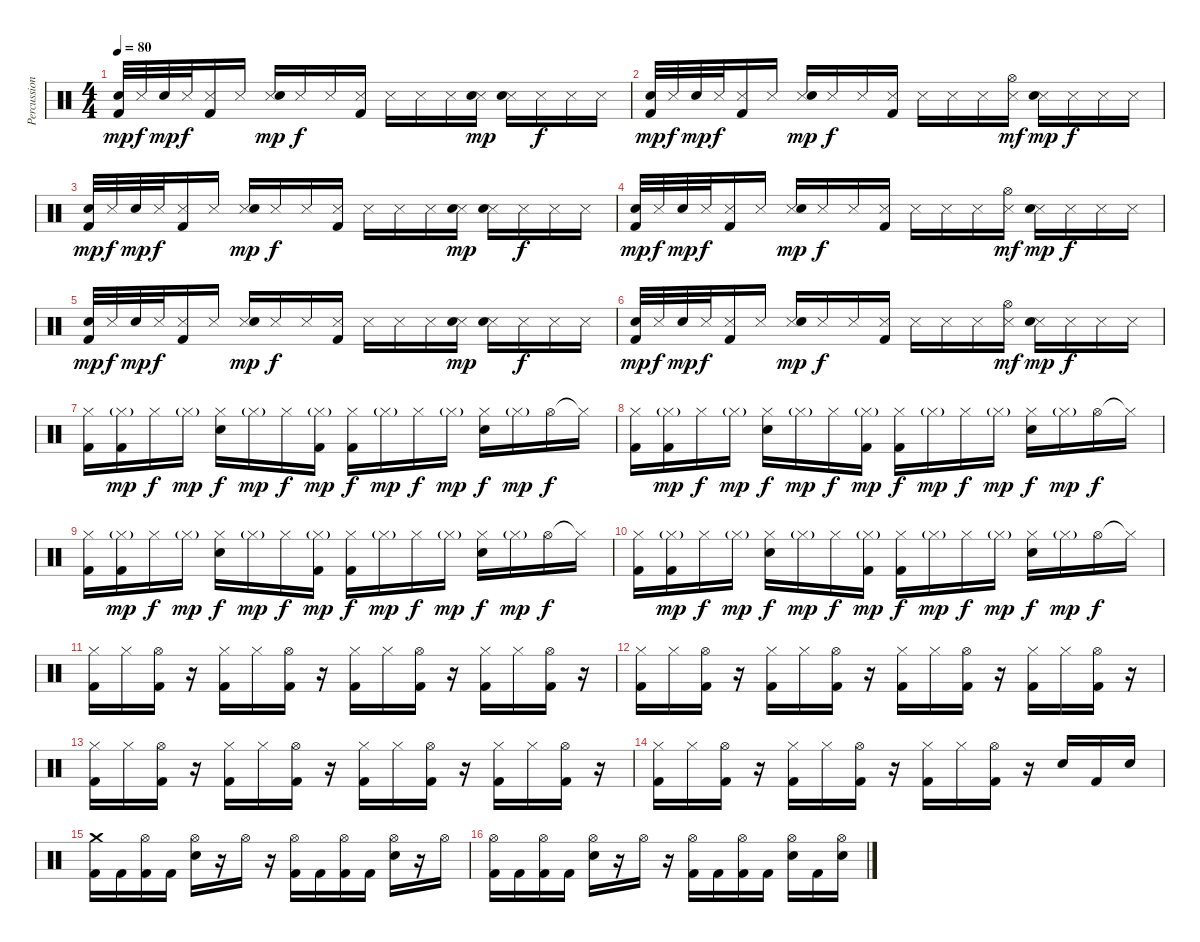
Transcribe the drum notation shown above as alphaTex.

\track ("Percussion" "Percussion") {instrument percussion}
\staff {score}
\articulation defaults
\ts (4 4)
\tempo 80
\clef neutral
\ks c
("Electric Snare (hit)" "Kick (hit) 2").32{dy mp} "Snare (side stick) 3".32{dy f} "Electric Snare (hit)".32{dy mp} "Snare (side stick) 3".32{dy f} ("Snare (side stick) 3" "Kick (hit) 2").16 "Snare (side stick) 3".16 ("Snare (side stick) 3" "Electric Snare (hit)").16{dy mp} "Snare (side stick) 3".16{dy f} "Snare (side stick) 3".16 ("Snare (side stick) 3" "Kick (hit) 2").16 "Snare (side stick) 3".16 "Snare (side stick) 3".16 "Snare (side stick) 3".16 ("Snare (side stick) 3" "Electric Snare (hit)").16{dy mp} ("Snare (side stick) 3" "Electric Snare (hit)").16 "Snare (side stick) 3".16{dy f} "Snare (side stick) 3".16 "Snare (side stick) 3".16 |
("Electric Snare (hit)" "Kick (hit) 2").32{dy mp} "Snare (side stick) 3".32{dy f} "Electric Snare (hit)".32{dy mp} "Snare (side stick) 3".32{dy f} ("Snare (side stick) 3" "Kick (hit) 2").16 "Snare (side stick) 3".16 ("Snare (side stick) 3" "Electric Snare (hit)").16{dy mp} "Snare (side stick) 3".16{dy f} "Snare (side stick) 3".16 ("Snare (side stick) 3" "Kick (hit) 2").16 "Snare (side stick) 3".16 "Snare (side stick) 3".16 "Snare (side stick) 3".16 ("Snare (side stick) 3" "Hi-Hat (open)").16{dy mf} ("Snare (side stick) 3" "Electric Snare (hit)").16{dy mp} "Snare (side stick) 3".16{dy f} "Snare (side stick) 3".16 "Snare (side stick) 3".16 |
("Electric Snare (hit)" "Kick (hit) 2").32{dy mp} "Snare (side stick) 3".32{dy f} "Electric Snare (hit)".32{dy mp} "Snare (side stick) 3".32{dy f} ("Snare (side stick) 3" "Kick (hit) 2").16 "Snare (side stick) 3".16 ("Snare (side stick) 3" "Electric Snare (hit)").16{dy mp} "Snare (side stick) 3".16{dy f} "Snare (side stick) 3".16 ("Snare (side stick) 3" "Kick (hit) 2").16 "Snare (side stick) 3".16 "Snare (side stick) 3".16 "Snare (side stick) 3".16 ("Snare (side stick) 3" "Electric Snare (hit)").16{dy mp} ("Snare (side stick) 3" "Electric Snare (hit)").16 "Snare (side stick) 3".16{dy f} "Snare (side stick) 3".16 "Snare (side stick) 3".16 |
("Electric Snare (hit)" "Kick (hit) 2").32{dy mp} "Snare (side stick) 3".32{dy f} "Electric Snare (hit)".32{dy mp} "Snare (side stick) 3".32{dy f} ("Snare (side stick) 3" "Kick (hit) 2").16 "Snare (side stick) 3".16 ("Snare (side stick) 3" "Electric Snare (hit)").16{dy mp} "Snare (side stick) 3".16{dy f} "Snare (side stick) 3".16 ("Snare (side stick) 3" "Kick (hit) 2").16 "Snare (side stick) 3".16 "Snare (side stick) 3".16 "Snare (side stick) 3".16 ("Snare (side stick) 3" "Hi-Hat (open)").16{dy mf} ("Snare (side stick) 3" "Electric Snare (hit)").16{dy mp} "Snare (side stick) 3".16{dy f} "Snare (side stick) 3".16 "Snare (side stick) 3".16 |
("Electric Snare (hit)" "Kick (hit) 2").32{dy mp} "Snare (side stick) 3".32{dy f} "Electric Snare (hit)".32{dy mp} "Snare (side stick) 3".32{dy f} ("Snare (side stick) 3" "Kick (hit) 2").16 "Snare (side stick) 3".16 ("Snare (side stick) 3" "Electric Snare (hit)").16{dy mp} "Snare (side stick) 3".16{dy f} "Snare (side stick) 3".16 ("Snare (side stick) 3" "Kick (hit) 2").16 "Snare (side stick) 3".16 "Snare (side stick) 3".16 "Snare (side stick) 3".16 ("Snare (side stick) 3" "Electric Snare (hit)").16{dy mp} ("Snare (side stick) 3" "Electric Snare (hit)").16 "Snare (side stick) 3".16{dy f} "Snare (side stick) 3".16 "Snare (side stick) 3".16 |
("Electric Snare (hit)" "Kick (hit) 2").32{dy mp} "Snare (side stick) 3".32{dy f} "Electric Snare (hit)".32{dy mp} "Snare (side stick) 3".32{dy f} ("Snare (side stick) 3" "Kick (hit) 2").16 "Snare (side stick) 3".16 ("Snare (side stick) 3" "Electric Snare (hit)").16{dy mp} "Snare (side stick) 3".16{dy f} "Snare (side stick) 3".16 ("Snare (side stick) 3" "Kick (hit) 2").16 "Snare (side stick) 3".16 "Snare (side stick) 3".16 "Snare (side stick) 3".16 ("Snare (side stick) 3" "Hi-Hat (open)").16{dy mf} ("Snare (side stick) 3" "Electric Snare (hit)").16{dy mp} "Snare (side stick) 3".16{dy f} "Snare (side stick) 3".16 "Snare (side stick) 3".16 |
("Hi-Hat (closed)" "Kick (hit) 2").16 ("Hi-Hat (closed)"{g} "Kick (hit) 2").16{dy mp} "Hi-Hat (closed)".16{dy f} "Hi-Hat (closed)"{g}.16{dy mp} ("Hi-Hat (closed)" "Electric Snare (hit)").16{dy f} "Hi-Hat (closed)"{g}.16{dy mp} "Hi-Hat (closed)".16{dy f} ("Hi-Hat (closed)"{g} "Kick (hit) 2").16{dy mp} ("Hi-Hat (closed)" "Kick (hit) 2").16{dy f} "Hi-Hat (closed)"{g}.16{dy mp} "Hi-Hat (closed)".16{dy f} "Hi-Hat (closed)"{g}.16{dy mp} ("Hi-Hat (closed)" "Electric Snare (hit)").16{dy f} "Hi-Hat (closed)"{g}.16{dy mp} "Hi-Hat (open)".16{dy f} "Hi-Hat (closed)"{t}.16 |
("Hi-Hat (closed)" "Kick (hit) 2").16 ("Hi-Hat (closed)"{g} "Kick (hit) 2").16{dy mp} "Hi-Hat (closed)".16{dy f} "Hi-Hat (closed)"{g}.16{dy mp} ("Hi-Hat (closed)" "Electric Snare (hit)").16{dy f} "Hi-Hat (closed)"{g}.16{dy mp} "Hi-Hat (closed)".16{dy f} ("Hi-Hat (closed)"{g} "Kick (hit) 2").16{dy mp} ("Hi-Hat (closed)" "Kick (hit) 2").16{dy f} "Hi-Hat (closed)"{g}.16{dy mp} "Hi-Hat (closed)".16{dy f} "Hi-Hat (closed)"{g}.16{dy mp} ("Hi-Hat (closed)" "Electric Snare (hit)").16{dy f} "Hi-Hat (closed)"{g}.16{dy mp} "Hi-Hat (open)".16{dy f} "Hi-Hat (closed)"{t}.16 |
("Hi-Hat (closed)" "Kick (hit) 2").16 ("Hi-Hat (closed)"{g} "Kick (hit) 2").16{dy mp} "Hi-Hat (closed)".16{dy f} "Hi-Hat (closed)"{g}.16{dy mp} ("Hi-Hat (closed)" "Electric Snare (hit)").16{dy f} "Hi-Hat (closed)"{g}.16{dy mp} "Hi-Hat (closed)".16{dy f} ("Hi-Hat (closed)"{g} "Kick (hit) 2").16{dy mp} ("Hi-Hat (closed)" "Kick (hit) 2").16{dy f} "Hi-Hat (closed)"{g}.16{dy mp} "Hi-Hat (closed)".16{dy f} "Hi-Hat (closed)"{g}.16{dy mp} ("Hi-Hat (closed)" "Electric Snare (hit)").16{dy f} "Hi-Hat (closed)"{g}.16{dy mp} "Hi-Hat (open)".16{dy f} "Hi-Hat (closed)"{t}.16 |
("Hi-Hat (closed)" "Kick (hit) 2").16 ("Hi-Hat (closed)"{g} "Kick (hit) 2").16{dy mp} "Hi-Hat (closed)".16{dy f} "Hi-Hat (closed)"{g}.16{dy mp} ("Hi-Hat (closed)" "Electric Snare (hit)").16{dy f} "Hi-Hat (closed)"{g}.16{dy mp} "Hi-Hat (closed)".16{dy f} ("Hi-Hat (closed)"{g} "Kick (hit) 2").16{dy mp} ("Hi-Hat (closed)" "Kick (hit) 2").16{dy f} "Hi-Hat (closed)"{g}.16{dy mp} "Hi-Hat (closed)".16{dy f} "Hi-Hat (closed)"{g}.16{dy mp} ("Hi-Hat (closed)" "Electric Snare (hit)").16{dy f} "Hi-Hat (closed)"{g}.16{dy mp} "Hi-Hat (open)".16{dy f} "Hi-Hat (closed)"{t}.16 |
("Hi-Hat (closed)" "Kick (hit) 2").16 "Hi-Hat (closed)".16 ("Hi-Hat (open)" "Kick (hit) 2").16 r.16 ("Hi-Hat (closed)" "Kick (hit) 2").16 "Hi-Hat (closed)".16 ("Hi-Hat (open)" "Kick (hit) 2").16 r.16 ("Hi-Hat (closed)" "Kick (hit) 2").16 "Hi-Hat (closed)".16 ("Hi-Hat (open)" "Kick (hit) 2").16 r.16 ("Hi-Hat (closed)" "Kick (hit) 2").16 "Hi-Hat (closed)".16 ("Hi-Hat (open)" "Kick (hit) 2").16 r.16 |
("Hi-Hat (closed)" "Kick (hit) 2").16 "Hi-Hat (closed)".16 ("Hi-Hat (open)" "Kick (hit) 2").16 r.16 ("Hi-Hat (closed)" "Kick (hit) 2").16 "Hi-Hat (closed)".16 ("Hi-Hat (open)" "Kick (hit) 2").16 r.16 ("Hi-Hat (closed)" "Kick (hit) 2").16 "Hi-Hat (closed)".16 ("Hi-Hat (open)" "Kick (hit) 2").16 r.16 ("Hi-Hat (closed)" "Kick (hit) 2").16 "Hi-Hat (closed)".16 ("Hi-Hat (open)" "Kick (hit) 2").16 r.16 |
("Hi-Hat (closed)" "Kick (hit) 2").16 "Hi-Hat (closed)".16 ("Hi-Hat (open)" "Kick (hit) 2").16 r.16 ("Hi-Hat (closed)" "Kick (hit) 2").16 "Hi-Hat (closed)".16 ("Hi-Hat (open)" "Kick (hit) 2").16 r.16 ("Hi-Hat (closed)" "Kick (hit) 2").16 "Hi-Hat (closed)".16 ("Hi-Hat (open)" "Kick (hit) 2").16 r.16 ("Hi-Hat (closed)" "Kick (hit) 2").16 "Hi-Hat (closed)".16 ("Hi-Hat (open)" "Kick (hit) 2").16 r.16 |
("Hi-Hat (closed)" "Kick (hit) 2").16 "Hi-Hat (closed)".16 ("Hi-Hat (open)" "Kick (hit) 2").16 r.16 ("Hi-Hat (closed)" "Kick (hit) 2").16 "Hi-Hat (closed)".16 ("Hi-Hat (open)" "Kick (hit) 2").16 r.16 ("Hi-Hat (closed)" "Kick (hit) 2").16 "Hi-Hat (closed)".16 ("Hi-Hat (open)" "Kick (hit) 2").16 r.16 "Electric Snare (hit)".16 "Kick (hit) 2".16 "Electric Snare (hit)".16 |
("Crash medium (hit)" "Kick (hit) 2").16 "Kick (hit) 2".16 ("Hi-Hat (open)" "Kick (hit) 2").16 "Kick (hit) 2".16 ("Hi-Hat (open)" "Electric Snare (hit)").16 r.16 "Hi-Hat (open)".16 r.16 ("Hi-Hat (open)" "Kick (hit) 2").16 "Kick (hit) 2".16 ("Hi-Hat (open)" "Kick (hit) 2").16 "Kick (hit) 2".16 ("Hi-Hat (open)" "Electric Snare (hit)").16 r.16 "Hi-Hat (open)".16 |
("Hi-Hat (open)" "Kick (hit) 2").16 "Kick (hit) 2".16 ("Hi-Hat (open)" "Kick (hit) 2").16 "Kick (hit) 2".16 ("Hi-Hat (open)" "Electric Snare (hit)").16 r.16 "Hi-Hat (open)".16 r.16 ("Hi-Hat (open)" "Kick (hit) 2").16 "Kick (hit) 2".16 ("Hi-Hat (open)" "Kick (hit) 2").16 "Kick (hit) 2".16 ("Hi-Hat (open)" "Electric Snare (hit)").16 "Kick (hit) 2".16 ("Hi-Hat (open)" "Electric Snare (hit)").16
